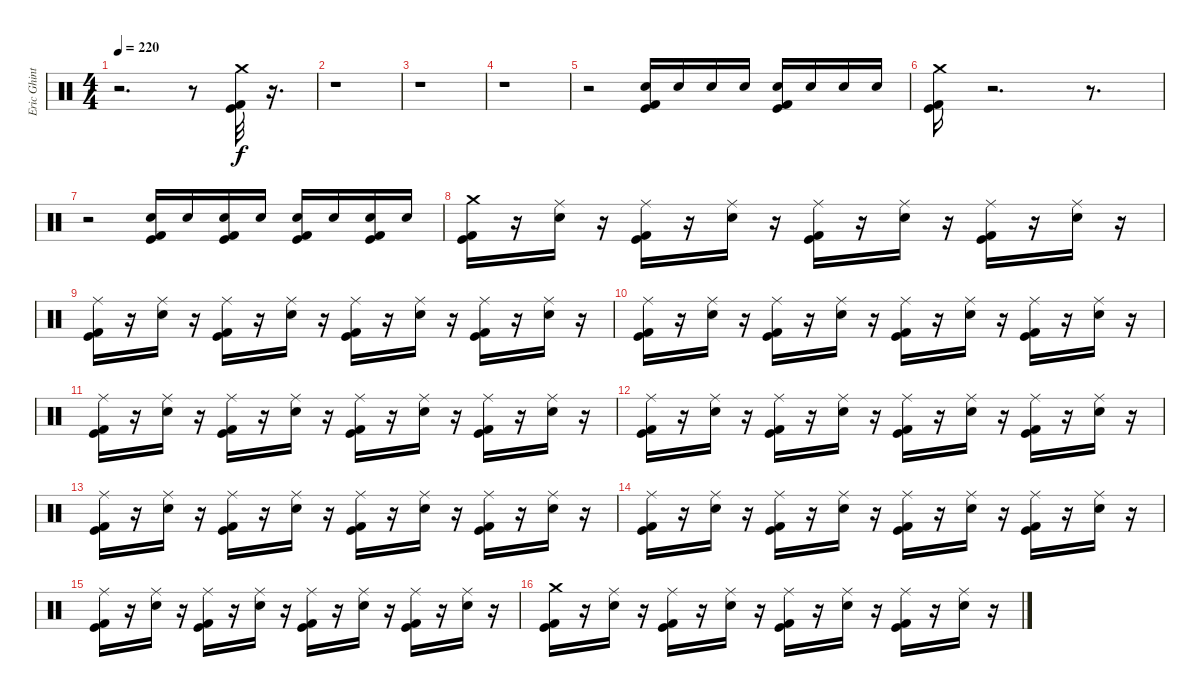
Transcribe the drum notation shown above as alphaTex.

\track ("Eric Ghint" "Eric Ghint") {instrument percussion}
\staff {score}
\articulation defaults
\ts (4 4)
\tempo 220
\clef neutral
\ks c
r.2{d dy f} r.8 ("Crash medium (hit)" "Kick (hit) 2" "Kick (hit)").32 r.16{d} |
r.1 |
r.1 |
r.1 |
r.2 ("Kick (hit) 2" "Snare (hit) 2" "Kick (hit)").16 "Snare (hit) 2".16 "Snare (hit) 2".16 "Snare (hit) 2".16 ("Kick (hit) 2" "Snare (hit) 2" "Kick (hit)").16 "Snare (hit) 2".16 "Snare (hit) 2".16 "Snare (hit) 2".16 |
("Crash medium (hit)" "Kick (hit) 2" "Kick (hit)").16 r.2{d} r.8{d} |
r.2 ("Snare (hit) 2" "Kick (hit) 2" "Kick (hit)").16 "Snare (hit) 2".16 ("Snare (hit) 2" "Kick (hit) 2" "Kick (hit)").16 "Snare (hit) 2".16 ("Snare (hit) 2" "Kick (hit) 2" "Kick (hit)").16 "Snare (hit) 2".16 ("Snare (hit) 2" "Kick (hit) 2" "Kick (hit)").16 "Snare (hit) 2".16 |
("Crash medium (hit)" "Kick (hit) 2" "Kick (hit)").16 r.16 ("Snare (hit) 2" "Ride (middle)").16 r.16 ("Kick (hit) 2" "Ride (middle)" "Kick (hit)").16 r.16 ("Snare (hit) 2" "Ride (middle)").16 r.16 ("Kick (hit) 2" "Ride (middle)" "Kick (hit)").16 r.16 ("Snare (hit) 2" "Ride (middle)").16 r.16 ("Kick (hit) 2" "Ride (middle)" "Kick (hit)").16 r.16 ("Snare (hit) 2" "Ride (middle)").16 r.16 |
("Ride (middle)" "Kick (hit) 2" "Kick (hit)").16 r.16 ("Snare (hit) 2" "Ride (middle)").16 r.16 ("Kick (hit) 2" "Ride (middle)" "Kick (hit)").16 r.16 ("Snare (hit) 2" "Ride (middle)").16 r.16 ("Kick (hit) 2" "Ride (middle)" "Kick (hit)").16 r.16 ("Snare (hit) 2" "Ride (middle)").16 r.16 ("Kick (hit) 2" "Ride (middle)" "Kick (hit)").16 r.16 ("Snare (hit) 2" "Ride (middle)").16 r.16 |
("Ride (middle)" "Kick (hit) 2" "Kick (hit)").16 r.16 ("Snare (hit) 2" "Ride (middle)").16 r.16 ("Kick (hit) 2" "Ride (middle)" "Kick (hit)").16 r.16 ("Snare (hit) 2" "Ride (middle)").16 r.16 ("Kick (hit) 2" "Ride (middle)" "Kick (hit)").16 r.16 ("Snare (hit) 2" "Ride (middle)").16 r.16 ("Kick (hit) 2" "Ride (middle)" "Kick (hit)").16 r.16 ("Snare (hit) 2" "Ride (middle)").16 r.16 |
("Ride (middle)" "Kick (hit) 2" "Kick (hit)").16 r.16 ("Snare (hit) 2" "Ride (middle)").16 r.16 ("Kick (hit) 2" "Ride (middle)" "Kick (hit)").16 r.16 ("Snare (hit) 2" "Ride (middle)").16 r.16 ("Kick (hit) 2" "Ride (middle)" "Kick (hit)").16 r.16 ("Snare (hit) 2" "Ride (middle)").16 r.16 ("Kick (hit) 2" "Ride (middle)" "Kick (hit)").16 r.16 ("Snare (hit) 2" "Ride (middle)").16 r.16 |
("Ride (middle)" "Kick (hit) 2" "Kick (hit)").16 r.16 ("Snare (hit) 2" "Ride (middle)").16 r.16 ("Kick (hit) 2" "Ride (middle)" "Kick (hit)").16 r.16 ("Snare (hit) 2" "Ride (middle)").16 r.16 ("Kick (hit) 2" "Ride (middle)" "Kick (hit)").16 r.16 ("Snare (hit) 2" "Ride (middle)").16 r.16 ("Kick (hit) 2" "Ride (middle)" "Kick (hit)").16 r.16 ("Snare (hit) 2" "Ride (middle)").16 r.16 |
("Ride (middle)" "Kick (hit) 2" "Kick (hit)").16 r.16 ("Snare (hit) 2" "Ride (middle)").16 r.16 ("Kick (hit) 2" "Ride (middle)" "Kick (hit)").16 r.16 ("Snare (hit) 2" "Ride (middle)").16 r.16 ("Kick (hit) 2" "Ride (middle)" "Kick (hit)").16 r.16 ("Snare (hit) 2" "Ride (middle)").16 r.16 ("Kick (hit) 2" "Ride (middle)" "Kick (hit)").16 r.16 ("Snare (hit) 2" "Ride (middle)").16 r.16 |
("Ride (middle)" "Kick (hit) 2" "Kick (hit)").16 r.16 ("Snare (hit) 2" "Ride (middle)").16 r.16 ("Kick (hit) 2" "Ride (middle)" "Kick (hit)").16 r.16 ("Snare (hit) 2" "Ride (middle)").16 r.16 ("Kick (hit) 2" "Ride (middle)" "Kick (hit)").16 r.16 ("Snare (hit) 2" "Ride (middle)").16 r.16 ("Kick (hit) 2" "Ride (middle)" "Kick (hit)").16 r.16 ("Snare (hit) 2" "Ride (middle)").16 r.16 |
("Ride (middle)" "Kick (hit) 2" "Kick (hit)").16 r.16 ("Snare (hit) 2" "Ride (middle)").16 r.16 ("Kick (hit) 2" "Ride (middle)" "Kick (hit)").16 r.16 ("Snare (hit) 2" "Ride (middle)").16 r.16 ("Kick (hit) 2" "Ride (middle)" "Kick (hit)").16 r.16 ("Snare (hit) 2" "Ride (middle)").16 r.16 ("Kick (hit) 2" "Ride (middle)" "Kick (hit)").16 r.16 ("Snare (hit) 2" "Ride (middle)").16 r.16 |
("Kick (hit) 2" "Kick (hit)" "Crash medium (hit)").16 r.16 ("Snare (hit) 2" "Ride (middle)").16 r.16 ("Kick (hit) 2" "Ride (middle)" "Kick (hit)").16 r.16 ("Snare (hit) 2" "Ride (middle)").16 r.16 ("Kick (hit) 2" "Ride (middle)" "Kick (hit)").16 r.16 ("Snare (hit) 2" "Ride (middle)").16 r.16 ("Kick (hit) 2" "Ride (middle)" "Kick (hit)").16 r.16 ("Snare (hit) 2" "Ride (middle)").16 r.16
